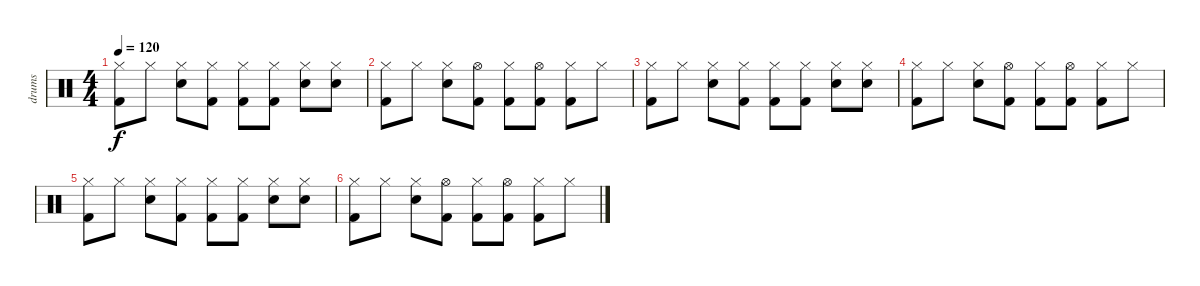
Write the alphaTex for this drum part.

\track ("drums" "drums") {instrument percussion}
\staff {score}
\articulation defaults
\ts (4 4)
\tempo 120
\clef neutral
\ks c
("Hi-Hat (closed)" "Kick (hit) 2").8{dy f} "Hi-Hat (closed)".8 ("Hi-Hat (closed)" "Snare (hit) 2").8 ("Hi-Hat (closed)" "Kick (hit) 2").8 ("Hi-Hat (closed)" "Kick (hit) 2").8 ("Hi-Hat (closed)" "Kick (hit) 2").8 ("Hi-Hat (closed)" "Snare (hit) 2").8 ("Hi-Hat (closed)" "Snare (hit) 2").8 |
("Hi-Hat (closed)" "Kick (hit) 2").8 "Hi-Hat (closed)".8 ("Hi-Hat (closed)" "Snare (hit) 2").8 ("Hi-Hat (open)" "Kick (hit) 2").8 ("Hi-Hat (closed)" "Kick (hit) 2").8 ("Hi-Hat (open)" "Kick (hit) 2").8 ("Hi-Hat (closed)" "Kick (hit) 2").8 "Hi-Hat (closed)".8 |
("Hi-Hat (closed)" "Kick (hit) 2").8 "Hi-Hat (closed)".8 ("Hi-Hat (closed)" "Snare (hit) 2").8 ("Hi-Hat (closed)" "Kick (hit) 2").8 ("Hi-Hat (closed)" "Kick (hit) 2").8 ("Hi-Hat (closed)" "Kick (hit) 2").8 ("Hi-Hat (closed)" "Snare (hit) 2").8 ("Hi-Hat (closed)" "Snare (hit) 2").8 |
("Hi-Hat (closed)" "Kick (hit) 2").8 "Hi-Hat (closed)".8 ("Hi-Hat (closed)" "Snare (hit) 2").8 ("Hi-Hat (open)" "Kick (hit) 2").8 ("Hi-Hat (closed)" "Kick (hit) 2").8 ("Hi-Hat (open)" "Kick (hit) 2").8 ("Hi-Hat (closed)" "Kick (hit) 2").8 "Hi-Hat (closed)".8 |
("Hi-Hat (closed)" "Kick (hit) 2").8 "Hi-Hat (closed)".8 ("Hi-Hat (closed)" "Snare (hit) 2").8 ("Hi-Hat (closed)" "Kick (hit) 2").8 ("Hi-Hat (closed)" "Kick (hit) 2").8 ("Hi-Hat (closed)" "Kick (hit) 2").8 ("Hi-Hat (closed)" "Snare (hit) 2").8 ("Hi-Hat (closed)" "Snare (hit) 2").8 |
("Hi-Hat (closed)" "Kick (hit) 2").8 "Hi-Hat (closed)".8 ("Hi-Hat (closed)" "Snare (hit) 2").8 ("Hi-Hat (open)" "Kick (hit) 2").8 ("Hi-Hat (closed)" "Kick (hit) 2").8 ("Hi-Hat (open)" "Kick (hit) 2").8 ("Hi-Hat (closed)" "Kick (hit) 2").8 "Hi-Hat (closed)".8
